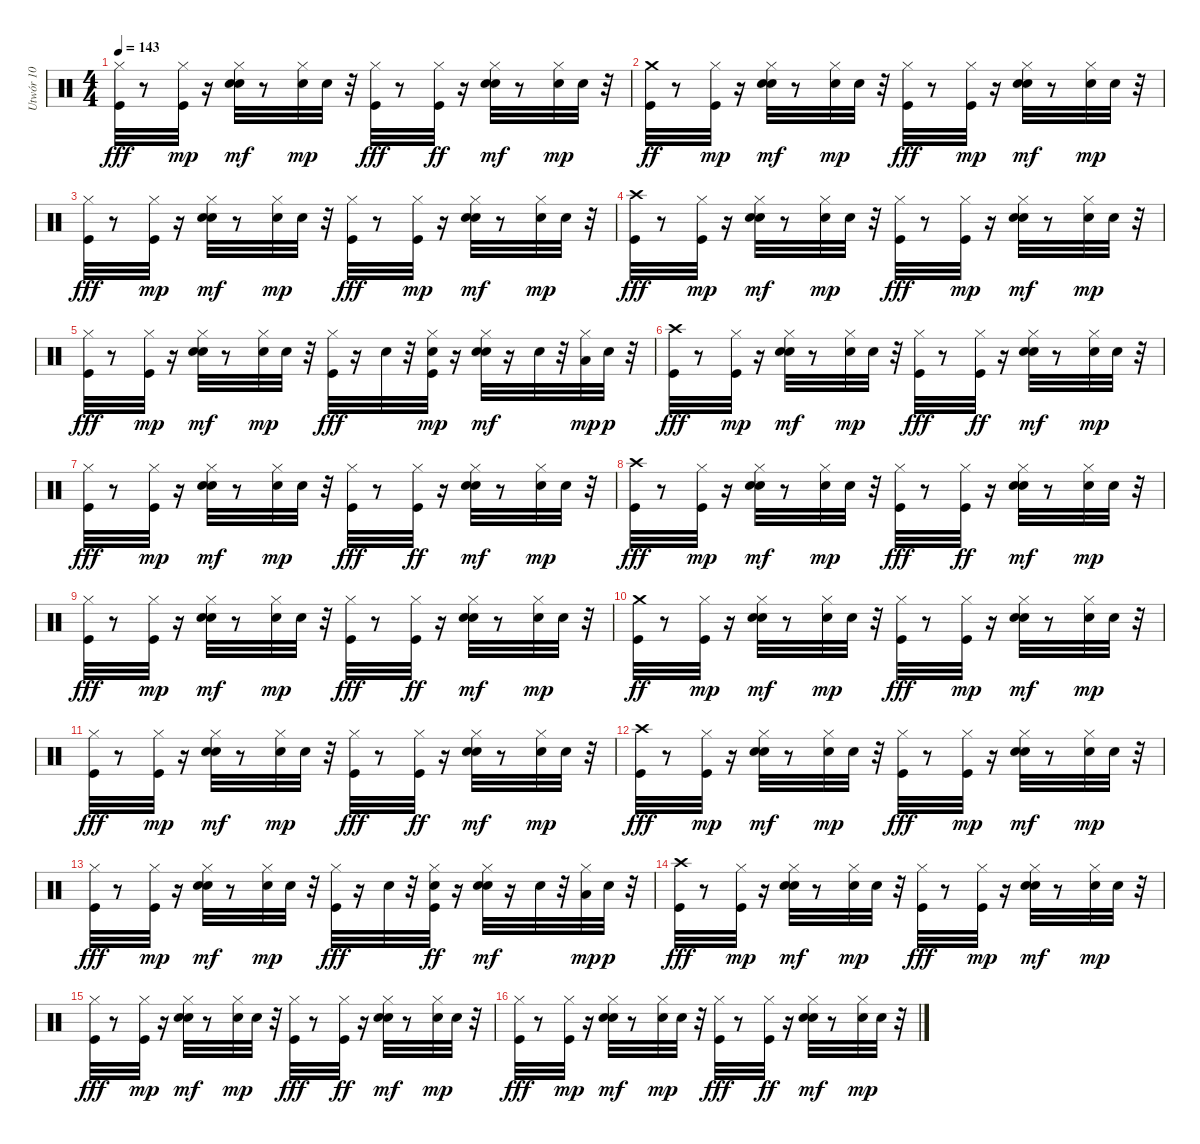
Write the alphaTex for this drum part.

\track ("Utwór 10" "Utwór 10") {instrument percussion}
\staff {score}
\articulation defaults
\ts (4 4)
\tempo 143
\clef neutral
\ks c
("Hi-Hat (closed)" "Kick (hit)").32{dy fff} r.8 ("Hi-Hat (closed)" "Kick (hit)").32{dy mp} r.16 ("Snare (hit) 2" "Hi-Hat (closed)" "Hand Clap (hit)").32{dy mf} r.8 ("Snare (hit) 2" "Hi-Hat (closed)").32{dy mp} "Hand Clap (hit)".32 r.32 ("Hi-Hat (closed)" "Kick (hit)").32{dy fff} r.8 ("Hi-Hat (closed)" "Kick (hit)").32{dy ff} r.16 ("Hi-Hat (closed)" "Snare (hit) 2" "Hand Clap (hit)").32{dy mf} r.8 ("Hi-Hat (closed)" "Snare (hit) 2").32{dy mp} "Hand Clap (hit)".32 r.32 |
("Kick (hit)" "Crash medium (hit)").32{dy ff} r.8 ("Kick (hit)" "Hi-Hat (closed)").32{dy mp} r.16 ("Snare (hit) 2" "Hi-Hat (closed)" "Hand Clap (hit)").32{dy mf} r.8 ("Snare (hit) 2" "Hi-Hat (closed)").32{dy mp} "Hand Clap (hit)".32 r.32 ("Kick (hit)" "Hi-Hat (closed)").32{dy fff} r.8 ("Kick (hit)" "Hi-Hat (closed)").32{dy mp} r.16 ("Hi-Hat (closed)" "Snare (hit) 2" "Hand Clap (hit)").32{dy mf} r.8 ("Snare (hit) 2" "Hi-Hat (closed)").32{dy mp} "Hand Clap (hit)".32 r.32 |
("Hi-Hat (closed)" "Kick (hit)").32{dy fff} r.8 ("Hi-Hat (closed)" "Kick (hit)").32{dy mp} r.16 ("Hi-Hat (closed)" "Snare (hit) 2" "Hand Clap (hit)").32{dy mf} r.8 ("Hi-Hat (closed)" "Snare (hit) 2").32{dy mp} "Hand Clap (hit)".32 r.32 ("Hi-Hat (closed)" "Kick (hit)").32{dy fff} r.8 ("Kick (hit)" "Hi-Hat (closed)").32{dy mp} r.16 ("Snare (hit) 2" "Hi-Hat (closed)" "Hand Clap (hit)").32{dy mf} r.8 ("Snare (hit) 2" "Hi-Hat (closed)").32{dy mp} "Hand Clap (hit)".32 r.32 |
("Crash high (hit)" "Kick (hit)").32{dy fff} r.8 ("Hi-Hat (closed)" "Kick (hit)").32{dy mp} r.16 ("Hi-Hat (closed)" "Snare (hit) 2" "Hand Clap (hit)").32{dy mf} r.8 ("Snare (hit) 2" "Hi-Hat (closed)").32{dy mp} "Hand Clap (hit)".32 r.32 ("Hi-Hat (closed)" "Kick (hit)").32{dy fff} r.8 ("Kick (hit)" "Hi-Hat (closed)").32{dy mp} r.16 ("Hi-Hat (closed)" "Snare (hit) 2" "Hand Clap (hit)").32{dy mf} r.8 ("Hi-Hat (closed)" "Snare (hit) 2").32{dy mp} "Hand Clap (hit)".32 r.32 |
("Hi-Hat (closed)" "Kick (hit)").32{dy fff} r.8 ("Kick (hit)" "Hi-Hat (closed)").32{dy mp} r.16 ("Hi-Hat (closed)" "Snare (hit) 2" "Hand Clap (hit)").32{dy mf} r.8 ("Hi-Hat (closed)" "Snare (hit) 2").32{dy mp} "Hand Clap (hit)".32 r.32 ("Kick (hit)" "Hi-Hat (closed)").32{dy fff} r.16 "Snare (hit) 2".32 r.32 ("Snare (hit) 2" "Kick (hit)" "Hi-Hat (closed)").32{dy mp} r.16 ("Snare (hit) 2" "Hi-Hat (closed)" "Hand Clap (hit)").32{dy mf} r.16 "Snare (hit) 2".32 r.32 ("Low Floor Tom (hit)" "Hi-Hat (closed)").32{dy mp} "Hand Clap (hit)".32{dy p} r.32 |
("Crash high (hit)" "Kick (hit)").32{dy fff} r.8 ("Hi-Hat (closed)" "Kick (hit)").32{dy mp} r.16 ("Hi-Hat (closed)" "Snare (hit) 2" "Hand Clap (hit)").32{dy mf} r.8 ("Snare (hit) 2" "Hi-Hat (closed)").32{dy mp} "Hand Clap (hit)".32 r.32 ("Hi-Hat (closed)" "Kick (hit)").32{dy fff} r.8 ("Hi-Hat (closed)" "Kick (hit)").32{dy ff} r.16 ("Snare (hit) 2" "Hi-Hat (closed)" "Hand Clap (hit)").32{dy mf} r.8 ("Snare (hit) 2" "Hi-Hat (closed)").32{dy mp} "Hand Clap (hit)".32 r.32 |
("Hi-Hat (closed)" "Kick (hit)").32{dy fff} r.8 ("Hi-Hat (closed)" "Kick (hit)").32{dy mp} r.16 ("Snare (hit) 2" "Hi-Hat (closed)" "Hand Clap (hit)").32{dy mf} r.8 ("Snare (hit) 2" "Hi-Hat (closed)").32{dy mp} "Hand Clap (hit)".32 r.32 ("Kick (hit)" "Hi-Hat (closed)").32{dy fff} r.8 ("Hi-Hat (closed)" "Kick (hit)").32{dy ff} r.16 ("Snare (hit) 2" "Hi-Hat (closed)" "Hand Clap (hit)").32{dy mf} r.8 ("Hi-Hat (closed)" "Snare (hit) 2").32{dy mp} "Hand Clap (hit)".32 r.32 |
("Crash high (hit)" "Kick (hit)").32{dy fff} r.8 ("Kick (hit)" "Hi-Hat (closed)").32{dy mp} r.16 ("Snare (hit) 2" "Hi-Hat (closed)" "Hand Clap (hit)").32{dy mf} r.8 ("Hi-Hat (closed)" "Snare (hit) 2").32{dy mp} "Hand Clap (hit)".32 r.32 ("Kick (hit)" "Hi-Hat (closed)").32{dy fff} r.8 ("Hi-Hat (closed)" "Kick (hit)").32{dy ff} r.16 ("Snare (hit) 2" "Hi-Hat (closed)" "Hand Clap (hit)").32{dy mf} r.8 ("Hi-Hat (closed)" "Snare (hit) 2").32{dy mp} "Hand Clap (hit)".32 r.32 |
("Kick (hit)" "Hi-Hat (closed)").32{dy fff} r.8 ("Kick (hit)" "Hi-Hat (closed)").32{dy mp} r.16 ("Snare (hit) 2" "Hi-Hat (closed)" "Hand Clap (hit)").32{dy mf} r.8 ("Snare (hit) 2" "Hi-Hat (closed)").32{dy mp} "Hand Clap (hit)".32 r.32 ("Kick (hit)" "Hi-Hat (closed)").32{dy fff} r.8 ("Hi-Hat (closed)" "Kick (hit)").32{dy ff} r.16 ("Snare (hit) 2" "Hi-Hat (closed)" "Hand Clap (hit)").32{dy mf} r.8 ("Snare (hit) 2" "Hi-Hat (closed)").32{dy mp} "Hand Clap (hit)".32 r.32 |
("Kick (hit)" "Crash medium (hit)").32{dy ff} r.8 ("Kick (hit)" "Hi-Hat (closed)").32{dy mp} r.16 ("Hi-Hat (closed)" "Snare (hit) 2" "Hand Clap (hit)").32{dy mf} r.8 ("Hi-Hat (closed)" "Snare (hit) 2").32{dy mp} "Hand Clap (hit)".32 r.32 ("Hi-Hat (closed)" "Kick (hit)").32{dy fff} r.8 ("Kick (hit)" "Hi-Hat (closed)").32{dy mp} r.16 ("Snare (hit) 2" "Hi-Hat (closed)" "Hand Clap (hit)").32{dy mf} r.8 ("Hi-Hat (closed)" "Snare (hit) 2").32{dy mp} "Hand Clap (hit)".32 r.32 |
("Kick (hit)" "Hi-Hat (closed)").32{dy fff} r.8 ("Hi-Hat (closed)" "Kick (hit)").32{dy mp} r.16 ("Snare (hit) 2" "Hi-Hat (closed)" "Hand Clap (hit)").32{dy mf} r.8 ("Hi-Hat (closed)" "Snare (hit) 2").32{dy mp} "Hand Clap (hit)".32 r.32 ("Kick (hit)" "Hi-Hat (closed)").32{dy fff} r.8 ("Hi-Hat (closed)" "Kick (hit)").32{dy ff} r.16 ("Hi-Hat (closed)" "Snare (hit) 2" "Hand Clap (hit)").32{dy mf} r.8 ("Hi-Hat (closed)" "Snare (hit) 2").32{dy mp} "Hand Clap (hit)".32 r.32 |
("Crash high (hit)" "Kick (hit)").32{dy fff} r.8 ("Hi-Hat (closed)" "Kick (hit)").32{dy mp} r.16 ("Hi-Hat (closed)" "Snare (hit) 2" "Hand Clap (hit)").32{dy mf} r.8 ("Snare (hit) 2" "Hi-Hat (closed)").32{dy mp} "Hand Clap (hit)".32 r.32 ("Kick (hit)" "Hi-Hat (closed)").32{dy fff} r.8 ("Kick (hit)" "Hi-Hat (closed)").32{dy mp} r.16 ("Hi-Hat (closed)" "Snare (hit) 2" "Hand Clap (hit)").32{dy mf} r.8 ("Snare (hit) 2" "Hi-Hat (closed)").32{dy mp} "Hand Clap (hit)".32 r.32 |
("Kick (hit)" "Hi-Hat (closed)").32{dy fff} r.8 ("Hi-Hat (closed)" "Kick (hit)").32{dy mp} r.16 ("Snare (hit) 2" "Hi-Hat (closed)" "Hand Clap (hit)").32{dy mf} r.8 ("Hi-Hat (closed)" "Snare (hit) 2").32{dy mp} "Hand Clap (hit)".32 r.32 ("Kick (hit)" "Hi-Hat (closed)").32{dy fff} r.16 "Snare (hit) 2".32 r.32 ("Snare (hit) 2" "Hi-Hat (closed)" "Kick (hit)").32{dy ff} r.16 ("Snare (hit) 2" "Hi-Hat (closed)" "Hand Clap (hit)").32{dy mf} r.16 "Snare (hit) 2".32 r.32 ("Hi-Hat (closed)" "Low Floor Tom (hit)").32{dy mp} "Hand Clap (hit)".32{dy p} r.32 |
("Crash high (hit)" "Kick (hit)").32{dy fff} r.8 ("Hi-Hat (closed)" "Kick (hit)").32{dy mp} r.16 ("Hi-Hat (closed)" "Snare (hit) 2" "Hand Clap (hit)").32{dy mf} r.8 ("Snare (hit) 2" "Hi-Hat (closed)").32{dy mp} "Hand Clap (hit)".32 r.32 ("Hi-Hat (closed)" "Kick (hit)").32{dy fff} r.8 ("Kick (hit)" "Hi-Hat (closed)").32{dy mp} r.16 ("Snare (hit) 2" "Hi-Hat (closed)" "Hand Clap (hit)").32{dy mf} r.8 ("Snare (hit) 2" "Hi-Hat (closed)").32{dy mp} "Hand Clap (hit)".32 r.32 |
("Kick (hit)" "Hi-Hat (closed)").32{dy fff} r.8 ("Kick (hit)" "Hi-Hat (closed)").32{dy mp} r.16 ("Snare (hit) 2" "Hi-Hat (closed)" "Hand Clap (hit)").32{dy mf} r.8 ("Snare (hit) 2" "Hi-Hat (closed)").32{dy mp} "Hand Clap (hit)".32 r.32 ("Hi-Hat (closed)" "Kick (hit)").32{dy fff} r.8 ("Hi-Hat (closed)" "Kick (hit)").32{dy ff} r.16 ("Snare (hit) 2" "Hi-Hat (closed)" "Hand Clap (hit)").32{dy mf} r.8 ("Snare (hit) 2" "Hi-Hat (closed)").32{dy mp} "Hand Clap (hit)".32 r.32 |
("Hi-Hat (closed)" "Kick (hit)").32{dy fff} r.8 ("Hi-Hat (closed)" "Kick (hit)").32{dy mp} r.16 ("Snare (hit) 2" "Hi-Hat (closed)" "Hand Clap (hit)").32{dy mf} r.8 ("Snare (hit) 2" "Hi-Hat (closed)").32{dy mp} "Hand Clap (hit)".32 r.32 ("Hi-Hat (closed)" "Kick (hit)").32{dy fff} r.8 ("Hi-Hat (closed)" "Kick (hit)").32{dy ff} r.16 ("Hi-Hat (closed)" "Snare (hit) 2" "Hand Clap (hit)").32{dy mf} r.8 ("Hi-Hat (closed)" "Snare (hit) 2").32{dy mp} "Hand Clap (hit)".32 r.32
